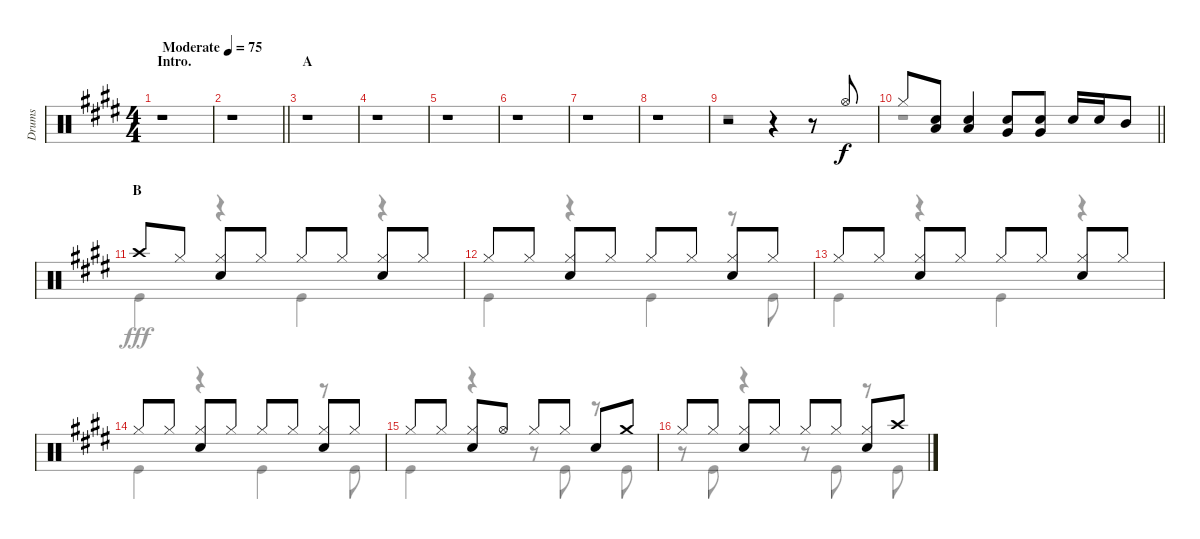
\track ("Drums" "Drums") {instrument percussion}
\staff {score}
\articulation defaults
\voice
\ts (4 4)
\section ("" "Intro.")
\tempo (75 "Moderate")
\clef neutral
\ks e
r.1{dy f} |
\barLineRight lightlight
r.1 |
\section ("" "A")
r.1 |
r.1 |
r.1 |
r.1 |
r.1 |
r.1 |
r.2 r.4 r.8 "Hi-Hat (open)".8 |
\barLineRight lightlight "Hi-Hat (closed)".8
("Snare (hit) 2" "Low Tom (hit)").8 ("Snare (hit) 2" "Low Tom (hit)").4 ("Snare (hit) 2" "Very Low Tom (hit)").8 ("Snare (hit) 2" "Very Low Tom (hit)").8 "Snare (hit) 2".16 "Snare (hit) 2".16 "Mid Tom (hit)".8 |
\section ("" "B")
"Crash high (hit)".8 "Hi-Hat (closed)".8 ("Hi-Hat (closed)" "Snare (hit) 2").8 "Hi-Hat (closed)".8 "Hi-Hat (closed)".8 "Hi-Hat (closed)".8 ("Hi-Hat (closed)" "Snare (hit) 2").8 "Hi-Hat (closed)".8 |
"Hi-Hat (closed)".8 "Hi-Hat (closed)".8 ("Hi-Hat (closed)" "Snare (hit) 2").8 "Hi-Hat (closed)".8 "Hi-Hat (closed)".8 "Hi-Hat (closed)".8 ("Hi-Hat (closed)" "Snare (hit) 2").8 "Hi-Hat (closed)".8 |
"Hi-Hat (closed)".8 "Hi-Hat (closed)".8 ("Hi-Hat (closed)" "Snare (hit) 2").8 "Hi-Hat (closed)".8 "Hi-Hat (closed)".8 "Hi-Hat (closed)".8 ("Hi-Hat (closed)" "Snare (hit) 2").8 "Hi-Hat (closed)".8 |
"Hi-Hat (closed)".8 "Hi-Hat (closed)".8 ("Hi-Hat (closed)" "Snare (hit) 2").8 "Hi-Hat (closed)".8 "Hi-Hat (closed)".8 "Hi-Hat (closed)".8 ("Hi-Hat (closed)" "Snare (hit) 2").8 "Hi-Hat (closed)".8 |
"Hi-Hat (closed)".8 "Hi-Hat (closed)".8 ("Hi-Hat (closed)" "Snare (hit) 2").8 "Hi-Hat (open)".8 "Hi-Hat (closed)".8 "Hi-Hat (closed)".8 "Snare (hit) 2".8 "Crash medium (hit)".8 |
"Hi-Hat (closed)".8 "Hi-Hat (closed)".8 ("Hi-Hat (closed)" "Snare (hit) 2").8 "Hi-Hat (closed)".8 "Hi-Hat (closed)".8 "Hi-Hat (closed)".8 ("Hi-Hat (closed)" "Snare (hit) 2").8 "Crash high (hit)".8
\voice
\clef neutral
\ottava regular
\simile none
\ks e
r.1{dy fff} |
\barLineRight lightlight
r.1 |
r.1 |
r.1 |
r.1 |
r.1 |
r.1 |
r.1 |
r.1 |
\barLineRight lightlight
r.1 |
"Kick (hit)".4 r.4 "Kick (hit)".4 r.4 |
"Kick (hit)".4 r.4 "Kick (hit)".4 r.8 "Kick (hit)".8 |
"Kick (hit)".4 r.4 "Kick (hit)".4 r.4 |
"Kick (hit)".4 r.4 "Kick (hit)".4 r.8 "Kick (hit)".8 |
"Kick (hit)".4 r.4 r.8 "Kick (hit)".8 r.8 "Kick (hit)".8 |
r.8 "Kick (hit)".8 r.4 r.8 "Kick (hit)".8 r.8 "Kick (hit)".8
